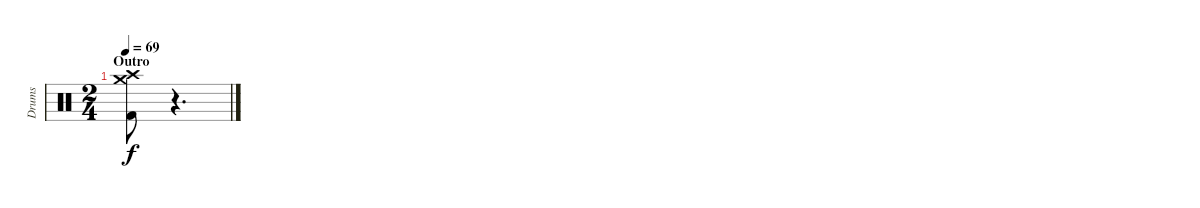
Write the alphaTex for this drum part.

\track ("Drums" "Drums") {instrument percussion}
\staff {score}
\articulation defaults
\ts (2 4)
\section ("" "Outro")
\tempo 69
\clef neutral
\ks c
("Kick (hit) 2" "Crash high (hit)" "Crash medium (hit)").8{dy f} r.4{d}
